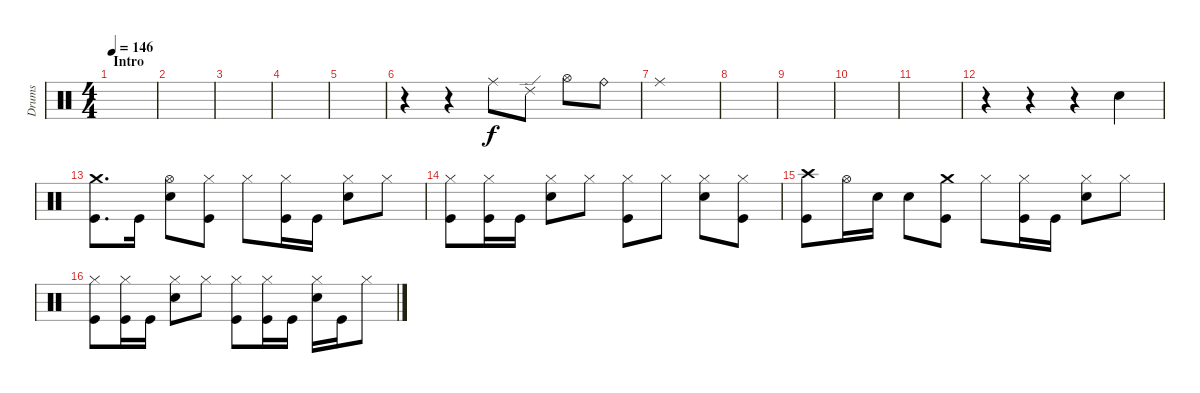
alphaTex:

\track ("Drums" "Drums") {instrument percussion}
\staff {score}
\articulation defaults
\ts (4 4)
\section ("" "Intro")
\tempo 146
\clef neutral
\ks c
|
|
|
|
|
r.4 r.4 "Ride (middle)".8 "Ride (edge) 2".8 "Hi-Hat (open)".8 "Ride (bell)".8 |
"Ride (middle)".1 |
|
|
|
|
r.4 r.4 r.4 "Electric Snare (hit)".4 |
("Crash medium (hit)" "Kick (hit)").8{d} "Kick (hit)".16 ("Hi-Hat (open)" "Electric Snare (hit)").8 ("Hi-Hat (closed)" "Kick (hit)").8 "Hi-Hat (closed)".8 ("Hi-Hat (closed)" "Kick (hit)").16 "Kick (hit)".16 ("Hi-Hat (closed)" "Electric Snare (hit)").8 "Hi-Hat (closed)".8 |
("Hi-Hat (closed)" "Kick (hit)").8 ("Hi-Hat (closed)" "Kick (hit)").16 "Kick (hit)".16 ("Hi-Hat (closed)" "Electric Snare (hit)").8 "Hi-Hat (closed)".8 ("Hi-Hat (closed)" "Kick (hit)").8 "Hi-Hat (closed)".8 ("Hi-Hat (closed)" "Electric Snare (hit)").8 ("Hi-Hat (closed)" "Kick (hit)").8 |
("Crash high (hit)" "Kick (hit)").8 "Hi-Hat (open)".16 "Electric Snare (hit)".16 "Electric Snare (hit)".8 ("Crash medium (hit)" "Kick (hit)").8 "Hi-Hat (closed)".8 ("Hi-Hat (closed)" "Kick (hit)").16 "Kick (hit)".16 ("Hi-Hat (closed)" "Electric Snare (hit)").8 "Hi-Hat (closed)".8 |
("Hi-Hat (closed)" "Kick (hit)").8 ("Hi-Hat (closed)" "Kick (hit)").16 "Kick (hit)".16 ("Hi-Hat (closed)" "Electric Snare (hit)").8 "Hi-Hat (closed)".8 ("Hi-Hat (closed)" "Kick (hit)").8 ("Hi-Hat (closed)" "Kick (hit)").16 "Kick (hit)".16 ("Hi-Hat (closed)" "Electric Snare (hit)").16 "Kick (hit)".16 "Hi-Hat (closed)".8
